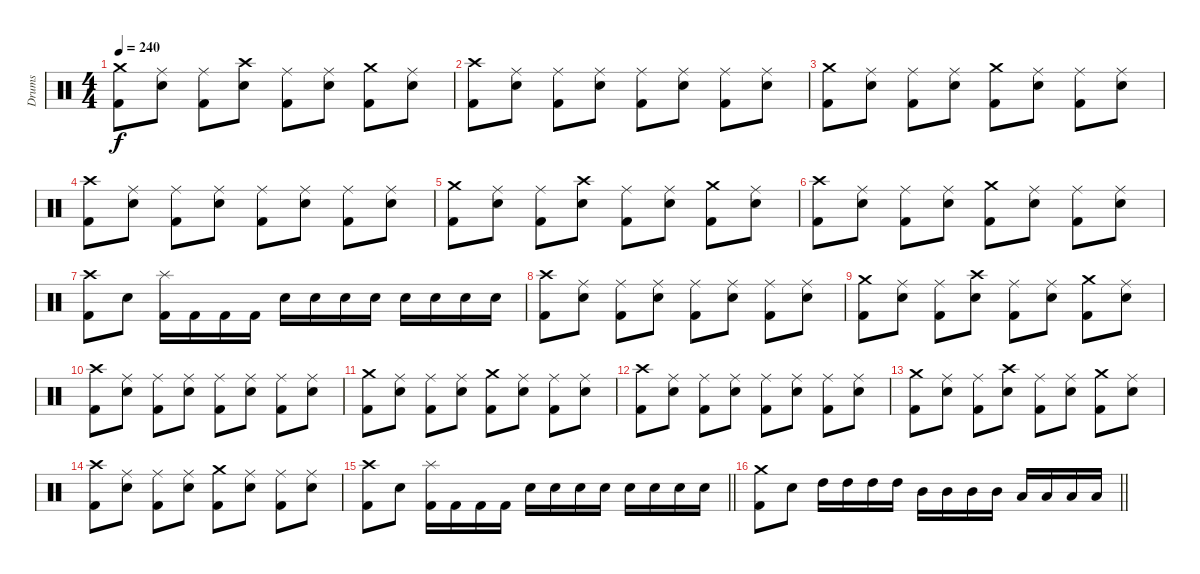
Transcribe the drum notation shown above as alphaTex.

\track ("Drums" "Drums") {instrument percussion}
\staff {score}
\articulation defaults
\ts (4 4)
\tempo 240
\clef neutral
\ks c
("Crash medium (hit)" "Kick (hit) 2").8{dy f} ("Ride (middle)" "Snare (hit) 2").8 ("Ride (middle)" "Kick (hit) 2").8 ("Crash high (hit)" "Snare (hit) 2").8 ("Ride (middle)" "Kick (hit) 2").8 ("Ride (middle)" "Snare (hit) 2").8 ("Crash medium (hit)" "Kick (hit) 2").8 ("Ride (middle)" "Snare (hit) 2").8 |
("Crash high (hit)" "Kick (hit) 2").8 ("Ride (middle)" "Snare (hit) 2").8 ("Ride (middle)" "Kick (hit) 2").8 ("Ride (middle)" "Snare (hit) 2").8 ("Ride (middle)" "Kick (hit) 2").8 ("Ride (middle)" "Snare (hit) 2").8 ("Ride (middle)" "Kick (hit) 2").8 ("Ride (middle)" "Snare (hit) 2").8 |
("Crash medium (hit)" "Kick (hit) 2").8 ("Ride (middle)" "Snare (hit) 2").8 ("Ride (middle)" "Kick (hit) 2").8 ("Ride (middle)" "Snare (hit) 2").8 ("Crash medium (hit)" "Kick (hit) 2").8 ("Ride (middle)" "Snare (hit) 2").8 ("Ride (middle)" "Kick (hit) 2").8 ("Ride (middle)" "Snare (hit) 2").8 |
("Crash high (hit)" "Kick (hit) 2").8 ("Ride (middle)" "Snare (hit) 2").8 ("Ride (middle)" "Kick (hit) 2").8 ("Ride (middle)" "Snare (hit) 2").8 ("Ride (middle)" "Kick (hit) 2").8 ("Ride (middle)" "Snare (hit) 2").8 ("Ride (middle)" "Kick (hit) 2").8 ("Ride (middle)" "Snare (hit) 2").8 |
("Crash medium (hit)" "Kick (hit) 2").8 ("Ride (middle)" "Snare (hit) 2").8 ("Ride (middle)" "Kick (hit) 2").8 ("Crash high (hit)" "Snare (hit) 2").8 ("Ride (middle)" "Kick (hit) 2").8 ("Ride (middle)" "Snare (hit) 2").8 ("Crash medium (hit)" "Kick (hit) 2").8 ("Ride (middle)" "Snare (hit) 2").8 |
("Crash high (hit)" "Kick (hit) 2").8 ("Ride (middle)" "Snare (hit) 2").8 ("Ride (middle)" "Kick (hit) 2").8 ("Ride (middle)" "Snare (hit) 2").8 ("Crash medium (hit)" "Kick (hit) 2").8 ("Ride (middle)" "Snare (hit) 2").8 ("Ride (middle)" "Kick (hit) 2").8 ("Ride (middle)" "Snare (hit) 2").8 |
("Crash high (hit)" "Kick (hit) 2").8 "Snare (hit) 2".8 ("Splash (hit)" "Kick (hit) 2").16 "Kick (hit) 2".16 "Kick (hit) 2".16 "Kick (hit) 2".16 "Snare (hit) 2".16 "Snare (hit) 2".16 "Snare (hit) 2".16 "Snare (hit) 2".16 "Snare (hit) 2".16 "Snare (hit) 2".16 "Snare (hit) 2".16 "Snare (hit) 2".16 |
("Crash high (hit)" "Kick (hit) 2").8 ("Ride (middle)" "Snare (hit) 2").8 ("Ride (middle)" "Kick (hit) 2").8 ("Ride (middle)" "Snare (hit) 2").8 ("Ride (middle)" "Kick (hit) 2").8 ("Ride (middle)" "Snare (hit) 2").8 ("Ride (middle)" "Kick (hit) 2").8 ("Ride (middle)" "Snare (hit) 2").8 |
("Crash medium (hit)" "Kick (hit) 2").8 ("Ride (middle)" "Snare (hit) 2").8 ("Ride (middle)" "Kick (hit) 2").8 ("Crash high (hit)" "Snare (hit) 2").8 ("Ride (middle)" "Kick (hit) 2").8 ("Ride (middle)" "Snare (hit) 2").8 ("Crash medium (hit)" "Kick (hit) 2").8 ("Ride (middle)" "Snare (hit) 2").8 |
("Crash high (hit)" "Kick (hit) 2").8 ("Ride (middle)" "Snare (hit) 2").8 ("Ride (middle)" "Kick (hit) 2").8 ("Ride (middle)" "Snare (hit) 2").8 ("Ride (middle)" "Kick (hit) 2").8 ("Ride (middle)" "Snare (hit) 2").8 ("Ride (middle)" "Kick (hit) 2").8 ("Ride (middle)" "Snare (hit) 2").8 |
("Crash medium (hit)" "Kick (hit) 2").8 ("Ride (middle)" "Snare (hit) 2").8 ("Ride (middle)" "Kick (hit) 2").8 ("Ride (middle)" "Snare (hit) 2").8 ("Crash medium (hit)" "Kick (hit) 2").8 ("Ride (middle)" "Snare (hit) 2").8 ("Ride (middle)" "Kick (hit) 2").8 ("Ride (middle)" "Snare (hit) 2").8 |
("Crash high (hit)" "Kick (hit) 2").8 ("Ride (middle)" "Snare (hit) 2").8 ("Ride (middle)" "Kick (hit) 2").8 ("Ride (middle)" "Snare (hit) 2").8 ("Ride (middle)" "Kick (hit) 2").8 ("Ride (middle)" "Snare (hit) 2").8 ("Ride (middle)" "Kick (hit) 2").8 ("Ride (middle)" "Snare (hit) 2").8 |
("Crash medium (hit)" "Kick (hit) 2").8 ("Ride (middle)" "Snare (hit) 2").8 ("Ride (middle)" "Kick (hit) 2").8 ("Crash high (hit)" "Snare (hit) 2").8 ("Ride (middle)" "Kick (hit) 2").8 ("Ride (middle)" "Snare (hit) 2").8 ("Crash medium (hit)" "Kick (hit) 2").8 ("Ride (middle)" "Snare (hit) 2").8 |
("Crash high (hit)" "Kick (hit) 2").8 ("Ride (middle)" "Snare (hit) 2").8 ("Ride (middle)" "Kick (hit) 2").8 ("Ride (middle)" "Snare (hit) 2").8 ("Crash medium (hit)" "Kick (hit) 2").8 ("Ride (middle)" "Snare (hit) 2").8 ("Ride (middle)" "Kick (hit) 2").8 ("Ride (middle)" "Snare (hit) 2").8 |
\barLineRight lightlight
("Crash high (hit)" "Kick (hit) 2").8 "Snare (hit) 2".8 ("Splash (hit)" "Kick (hit) 2").16 "Kick (hit) 2".16 "Kick (hit) 2".16 "Kick (hit) 2".16 "Snare (hit) 2".16 "Snare (hit) 2".16 "Snare (hit) 2".16 "Snare (hit) 2".16 "Snare (hit) 2".16 "Snare (hit) 2".16 "Snare (hit) 2".16 "Snare (hit) 2".16 |
\section ("" "")
\barLineRight lightlight
("Crash medium (hit)" "Kick (hit) 2").8 "Snare (hit) 2".8 "High Tom (hit)".16 "High Tom (hit)".16 "High Tom (hit)".16 "High Tom (hit)".16 "Mid Tom (hit)".16 "Mid Tom (hit)".16 "Mid Tom (hit)".16 "Mid Tom (hit)".16 "Low Tom (hit)".16 "Low Tom (hit)".16 "Low Tom (hit)".16 "Low Tom (hit)".16
